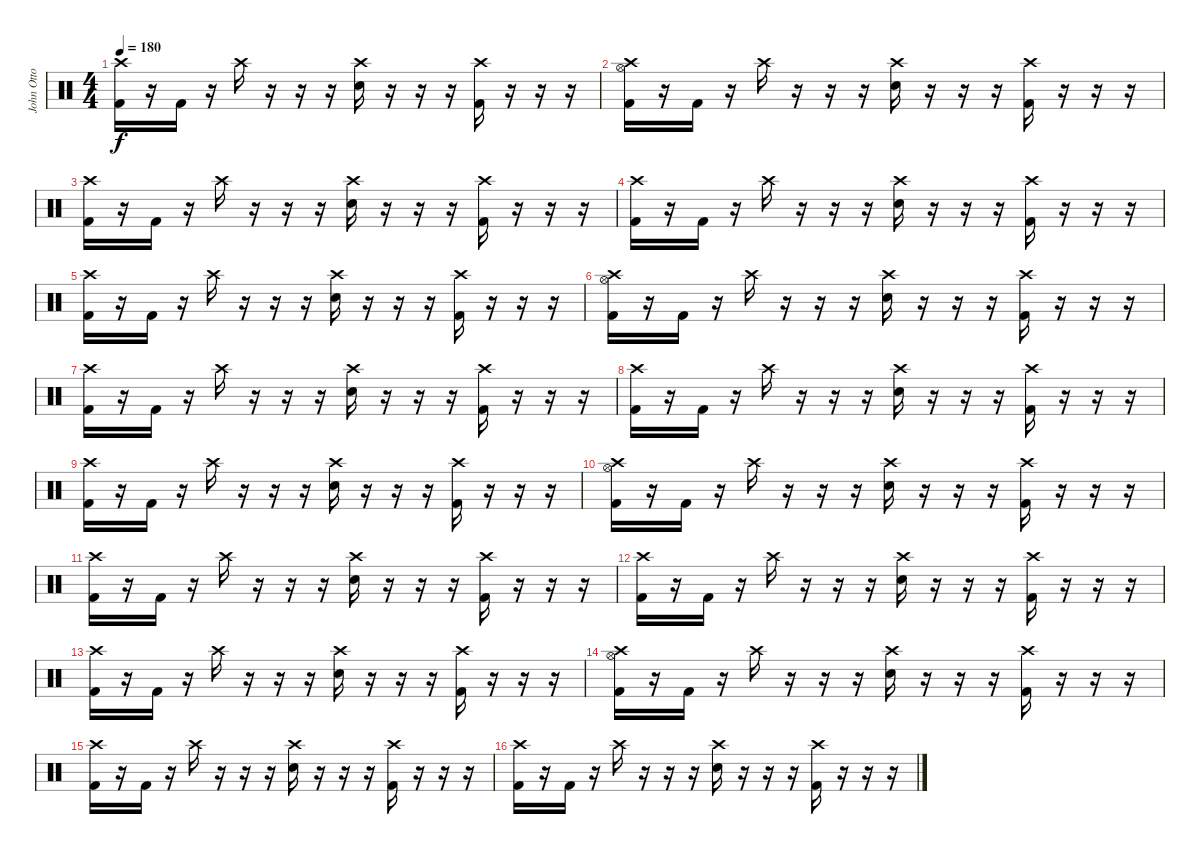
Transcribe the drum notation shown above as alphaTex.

\track ("John Otto" "John Otto") {instrument percussion}
\staff {score}
\articulation defaults
\ts (4 4)
\tempo 180
\clef neutral
\ks c
("Crash high (hit)" "Kick (hit) 2").16{dy f} r.16 "Kick (hit) 2".16 r.16 "Crash high (hit)".16 r.16 r.16 r.16 ("Crash high (hit)" "Snare (hit) 2").16 r.16 r.16 r.16 ("Crash high (hit)" "Kick (hit) 2").16 r.16 r.16 r.16 |
("Crash high (hit)" "Hi-Hat (open)" "Kick (hit) 2").16 r.16 "Kick (hit) 2".16 r.16 "Crash high (hit)".16 r.16 r.16 r.16 ("Crash high (hit)" "Snare (hit) 2").16 r.16 r.16 r.16 ("Crash high (hit)" "Kick (hit) 2").16 r.16 r.16 r.16 |
("Crash high (hit)" "Kick (hit) 2").16 r.16 "Kick (hit) 2".16 r.16 "Crash high (hit)".16 r.16 r.16 r.16 ("Crash high (hit)" "Snare (hit) 2").16 r.16 r.16 r.16 ("Crash high (hit)" "Kick (hit) 2").16 r.16 r.16 r.16 |
("Crash high (hit)" "Kick (hit) 2").16 r.16 "Kick (hit) 2".16 r.16 "Crash high (hit)".16 r.16 r.16 r.16 ("Crash high (hit)" "Snare (hit) 2").16 r.16 r.16 r.16 ("Crash high (hit)" "Kick (hit) 2").16 r.16 r.16 r.16 |
("Crash high (hit)" "Kick (hit) 2").16 r.16 "Kick (hit) 2".16 r.16 "Crash high (hit)".16 r.16 r.16 r.16 ("Crash high (hit)" "Snare (hit) 2").16 r.16 r.16 r.16 ("Crash high (hit)" "Kick (hit) 2").16 r.16 r.16 r.16 |
("Crash high (hit)" "Hi-Hat (open)" "Kick (hit) 2").16 r.16 "Kick (hit) 2".16 r.16 "Crash high (hit)".16 r.16 r.16 r.16 ("Crash high (hit)" "Snare (hit) 2").16 r.16 r.16 r.16 ("Crash high (hit)" "Kick (hit) 2").16 r.16 r.16 r.16 |
("Crash high (hit)" "Kick (hit) 2").16 r.16 "Kick (hit) 2".16 r.16 "Crash high (hit)".16 r.16 r.16 r.16 ("Crash high (hit)" "Snare (hit) 2").16 r.16 r.16 r.16 ("Crash high (hit)" "Kick (hit) 2").16 r.16 r.16 r.16 |
("Crash high (hit)" "Kick (hit) 2").16 r.16 "Kick (hit) 2".16 r.16 "Crash high (hit)".16 r.16 r.16 r.16 ("Crash high (hit)" "Snare (hit) 2").16 r.16 r.16 r.16 ("Crash high (hit)" "Kick (hit) 2").16 r.16 r.16 r.16 |
("Crash high (hit)" "Kick (hit) 2").16 r.16 "Kick (hit) 2".16 r.16 "Crash high (hit)".16 r.16 r.16 r.16 ("Crash high (hit)" "Snare (hit) 2").16 r.16 r.16 r.16 ("Crash high (hit)" "Kick (hit) 2").16 r.16 r.16 r.16 |
("Crash high (hit)" "Hi-Hat (open)" "Kick (hit) 2").16 r.16 "Kick (hit) 2".16 r.16 "Crash high (hit)".16 r.16 r.16 r.16 ("Crash high (hit)" "Snare (hit) 2").16 r.16 r.16 r.16 ("Crash high (hit)" "Kick (hit) 2").16 r.16 r.16 r.16 |
("Crash high (hit)" "Kick (hit) 2").16 r.16 "Kick (hit) 2".16 r.16 "Crash high (hit)".16 r.16 r.16 r.16 ("Crash high (hit)" "Snare (hit) 2").16 r.16 r.16 r.16 ("Crash high (hit)" "Kick (hit) 2").16 r.16 r.16 r.16 |
("Crash high (hit)" "Kick (hit) 2").16 r.16 "Kick (hit) 2".16 r.16 "Crash high (hit)".16 r.16 r.16 r.16 ("Crash high (hit)" "Snare (hit) 2").16 r.16 r.16 r.16 ("Crash high (hit)" "Kick (hit) 2").16 r.16 r.16 r.16 |
("Crash high (hit)" "Kick (hit) 2").16 r.16 "Kick (hit) 2".16 r.16 "Crash high (hit)".16 r.16 r.16 r.16 ("Crash high (hit)" "Snare (hit) 2").16 r.16 r.16 r.16 ("Crash high (hit)" "Kick (hit) 2").16 r.16 r.16 r.16 |
("Crash high (hit)" "Hi-Hat (open)" "Kick (hit) 2").16 r.16 "Kick (hit) 2".16 r.16 "Crash high (hit)".16 r.16 r.16 r.16 ("Crash high (hit)" "Snare (hit) 2").16 r.16 r.16 r.16 ("Crash high (hit)" "Kick (hit) 2").16 r.16 r.16 r.16 |
("Crash high (hit)" "Kick (hit) 2").16 r.16 "Kick (hit) 2".16 r.16 "Crash high (hit)".16 r.16 r.16 r.16 ("Crash high (hit)" "Snare (hit) 2").16 r.16 r.16 r.16 ("Crash high (hit)" "Kick (hit) 2").16 r.16 r.16 r.16 |
("Crash high (hit)" "Kick (hit) 2").16 r.16 "Kick (hit) 2".16 r.16 "Crash high (hit)".16 r.16 r.16 r.16 ("Crash high (hit)" "Snare (hit) 2").16 r.16 r.16 r.16 ("Crash high (hit)" "Kick (hit) 2").16 r.16 r.16 r.16
